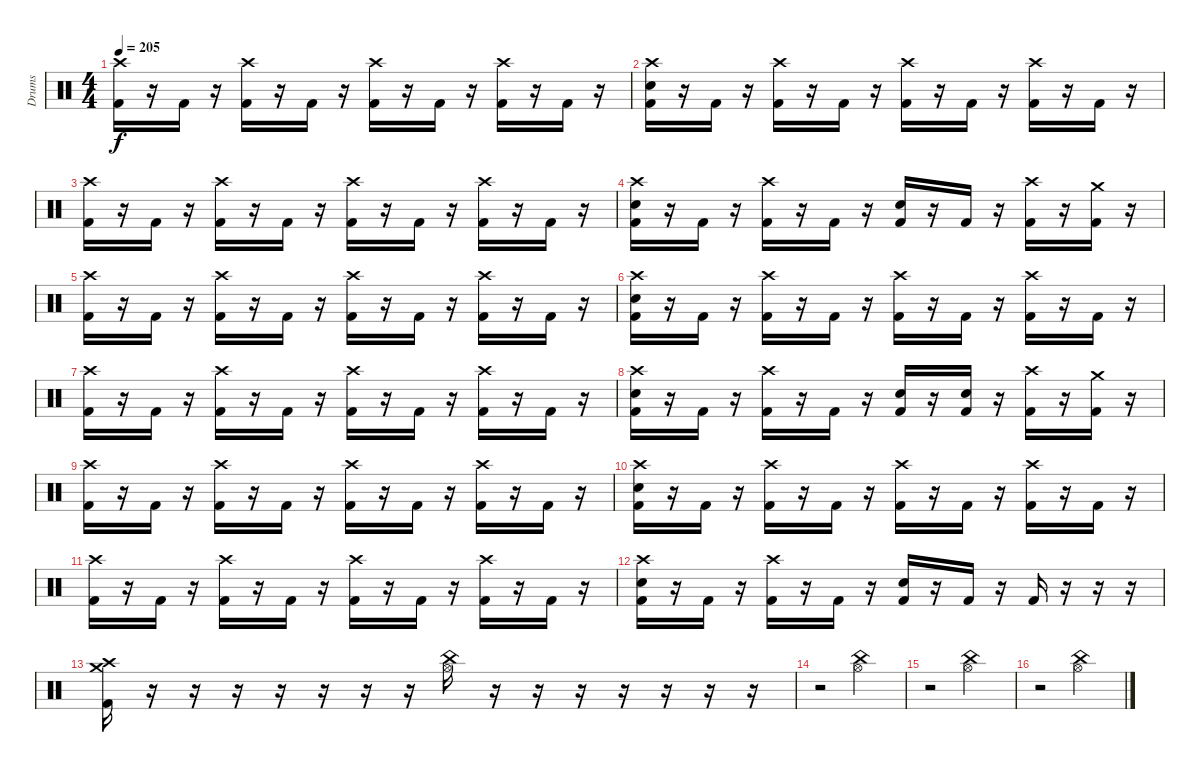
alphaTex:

\track ("Drums" "Drums") {instrument percussion}
\staff {score}
\articulation defaults
\ts (4 4)
\tempo 205
\clef neutral
\ks c
("Crash high (hit)" "Kick (hit) 2").16{dy f} r.16 "Kick (hit) 2".16 r.16 ("Crash high (hit)" "Kick (hit) 2").16 r.16 "Kick (hit) 2".16 r.16 ("Crash high (hit)" "Kick (hit) 2").16 r.16 "Kick (hit) 2".16 r.16 ("Crash high (hit)" "Kick (hit) 2").16 r.16 "Kick (hit) 2".16 r.16 |
("Crash high (hit)" "Electric Snare (hit)" "Kick (hit) 2").16 r.16 "Kick (hit) 2".16 r.16 ("Crash high (hit)" "Kick (hit) 2").16 r.16 "Kick (hit) 2".16 r.16 ("Crash high (hit)" "Kick (hit) 2").16 r.16 "Kick (hit) 2".16 r.16 ("Crash high (hit)" "Kick (hit) 2").16 r.16 "Kick (hit) 2".16 r.16 |
("Crash high (hit)" "Kick (hit) 2").16 r.16 "Kick (hit) 2".16 r.16 ("Crash high (hit)" "Kick (hit) 2").16 r.16 "Kick (hit) 2".16 r.16 ("Crash high (hit)" "Kick (hit) 2").16 r.16 "Kick (hit) 2".16 r.16 ("Crash high (hit)" "Kick (hit) 2").16 r.16 "Kick (hit) 2".16 r.16 |
("Crash high (hit)" "Electric Snare (hit)" "Kick (hit) 2").16 r.16 "Kick (hit) 2".16 r.16 ("Crash high (hit)" "Kick (hit) 2").16 r.16 "Kick (hit) 2".16 r.16 ("Electric Snare (hit)" "Kick (hit) 2").16 r.16 "Kick (hit) 2".16 r.16 ("Crash high (hit)" "Kick (hit) 2").16 r.16 ("Crash medium (hit)" "Kick (hit) 2").16 r.16 |
("Crash high (hit)" "Kick (hit) 2").16 r.16 "Kick (hit) 2".16 r.16 ("Crash high (hit)" "Kick (hit) 2").16 r.16 "Kick (hit) 2".16 r.16 ("Crash high (hit)" "Kick (hit) 2").16 r.16 "Kick (hit) 2".16 r.16 ("Crash high (hit)" "Kick (hit) 2").16 r.16 "Kick (hit) 2".16 r.16 |
("Crash high (hit)" "Electric Snare (hit)" "Kick (hit) 2").16 r.16 "Kick (hit) 2".16 r.16 ("Crash high (hit)" "Kick (hit) 2").16 r.16 "Kick (hit) 2".16 r.16 ("Crash high (hit)" "Kick (hit) 2").16 r.16 "Kick (hit) 2".16 r.16 ("Crash high (hit)" "Kick (hit) 2").16 r.16 "Kick (hit) 2".16 r.16 |
("Crash high (hit)" "Kick (hit) 2").16 r.16 "Kick (hit) 2".16 r.16 ("Crash high (hit)" "Kick (hit) 2").16 r.16 "Kick (hit) 2".16 r.16 ("Crash high (hit)" "Kick (hit) 2").16 r.16 "Kick (hit) 2".16 r.16 ("Crash high (hit)" "Kick (hit) 2").16 r.16 "Kick (hit) 2".16 r.16 |
("Crash high (hit)" "Electric Snare (hit)" "Kick (hit) 2").16 r.16 "Kick (hit) 2".16 r.16 ("Crash high (hit)" "Kick (hit) 2").16 r.16 "Kick (hit) 2".16 r.16 ("Electric Snare (hit)" "Kick (hit) 2").16 r.16 ("Electric Snare (hit)" "Kick (hit) 2").16 r.16 ("Crash high (hit)" "Kick (hit) 2").16 r.16 ("Crash medium (hit)" "Kick (hit) 2").16 r.16 |
("Crash high (hit)" "Kick (hit) 2").16 r.16 "Kick (hit) 2".16 r.16 ("Crash high (hit)" "Kick (hit) 2").16 r.16 "Kick (hit) 2".16 r.16 ("Crash high (hit)" "Kick (hit) 2").16 r.16 "Kick (hit) 2".16 r.16 ("Crash high (hit)" "Kick (hit) 2").16 r.16 "Kick (hit) 2".16 r.16 |
("Crash high (hit)" "Electric Snare (hit)" "Kick (hit) 2").16 r.16 "Kick (hit) 2".16 r.16 ("Crash high (hit)" "Kick (hit) 2").16 r.16 "Kick (hit) 2".16 r.16 ("Crash high (hit)" "Kick (hit) 2").16 r.16 "Kick (hit) 2".16 r.16 ("Crash high (hit)" "Kick (hit) 2").16 r.16 "Kick (hit) 2".16 r.16 |
("Crash high (hit)" "Kick (hit) 2").16 r.16 "Kick (hit) 2".16 r.16 ("Crash high (hit)" "Kick (hit) 2").16 r.16 "Kick (hit) 2".16 r.16 ("Crash high (hit)" "Kick (hit) 2").16 r.16 "Kick (hit) 2".16 r.16 ("Crash high (hit)" "Kick (hit) 2").16 r.16 "Kick (hit) 2".16 r.16 |
("Crash high (hit)" "Electric Snare (hit)" "Kick (hit) 2").16 r.16 "Kick (hit) 2".16 r.16 ("Crash high (hit)" "Kick (hit) 2").16 r.16 "Kick (hit) 2".16 r.16 ("Electric Snare (hit)" "Kick (hit) 2").16 r.16 "Kick (hit) 2".16 r.16 "Kick (hit) 2".16 r.16 r.16 r.16 |
("Crash medium (hit)" "Crash high (hit)" "Kick (hit) 2").16 r.16 r.16 r.16 r.16 r.16 r.16 r.16 ("China (hit)" "Hi-Hat (open)").16 r.16 r.16 r.16 r.16 r.16 r.16 r.16 |
r.2 ("China (hit)" "Hi-Hat (open)").2 |
r.2 ("China (hit)" "Hi-Hat (open)").2 |
r.2 ("China (hit)" "Hi-Hat (open)").2
